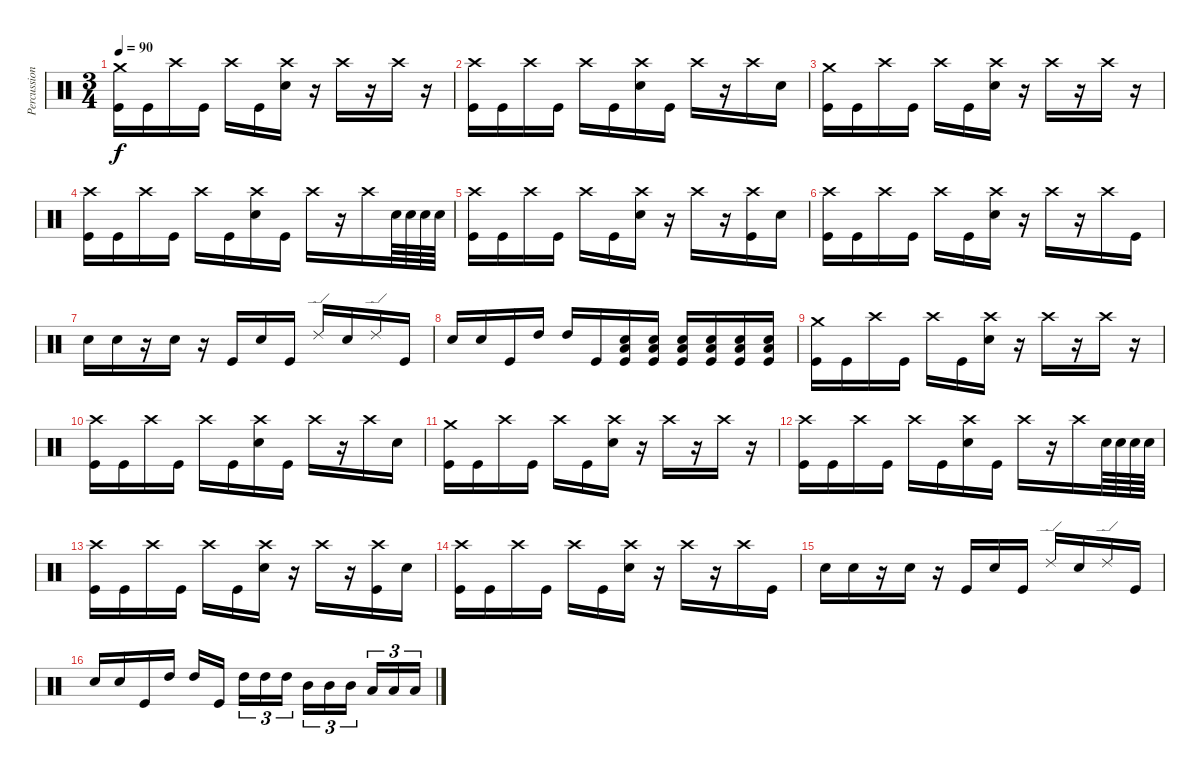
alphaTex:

\track ("Percussion" "Percussion") {instrument percussion}
\staff {score}
\articulation defaults
\ts (3 4)
\tempo 90
\clef neutral
\ks c
("Kick (hit)" "Crash medium (hit)").16{dy f} "Kick (hit)".16 "Crash high (hit)".16 "Kick (hit)".16 "Crash high (hit)".16 "Kick (hit)".16 ("Electric Snare (hit)" "Crash high (hit)").16 r.16 "Crash high (hit)".16 r.16 "Crash high (hit)".16 r.16 |
("Kick (hit)" "Crash high (hit)").16 "Kick (hit)".16 "Crash high (hit)".16 "Kick (hit)".16 "Crash high (hit)".16 "Kick (hit)".16 ("Electric Snare (hit)" "Crash high (hit)").16 "Kick (hit)".16 "Crash high (hit)".16 r.16 "Crash high (hit)".16 "Electric Snare (hit)".16 |
("Kick (hit)" "Crash medium (hit)").16 "Kick (hit)".16 "Crash high (hit)".16 "Kick (hit)".16 "Crash high (hit)".16 "Kick (hit)".16 ("Electric Snare (hit)" "Crash high (hit)").16 r.16 "Crash high (hit)".16 r.16 "Crash high (hit)".16 r.16 |
("Kick (hit)" "Crash high (hit)").16 "Kick (hit)".16 "Crash high (hit)".16 "Kick (hit)".16 "Crash high (hit)".16 "Kick (hit)".16 ("Electric Snare (hit)" "Crash high (hit)").16 "Kick (hit)".16 "Crash high (hit)".16 r.16 "Crash high (hit)".16 "Electric Snare (hit)".64 "Electric Snare (hit)".64 "Electric Snare (hit)".64 "Electric Snare (hit)".64 |
("Kick (hit)" "Crash high (hit)").16 "Kick (hit)".16 "Crash high (hit)".16 "Kick (hit)".16 "Crash high (hit)".16 "Kick (hit)".16 ("Electric Snare (hit)" "Crash high (hit)").16 r.16 "Crash high (hit)".16 r.16 ("Kick (hit)" "Crash high (hit)").16 "Electric Snare (hit)".16 |
("Kick (hit)" "Crash high (hit)").16 "Kick (hit)".16 "Crash high (hit)".16 "Kick (hit)".16 "Crash high (hit)".16 "Kick (hit)".16 ("Electric Snare (hit)" "Crash high (hit)").16 r.16 "Crash high (hit)".16 r.16 "Crash high (hit)".16 "Kick (hit)".16 |
"Electric Snare (hit)".16 "Electric Snare (hit)".16 r.16 "Electric Snare (hit)".16 r.16 "Kick (hit)".16 "Electric Snare (hit)".16 "Kick (hit)".16 "Ride (edge) 2".16 "Electric Snare (hit)".16 "Ride (edge) 2".16 "Kick (hit)".16 |
"Electric Snare (hit)".16 "Electric Snare (hit)".16 "Kick (hit)".16 "High Tom (hit)".16 "High Tom (hit)".16 "Kick (hit)".16 ("Kick (hit)" "Electric Snare (hit)" "Low Floor Tom (hit)").16 ("Kick (hit)" "Electric Snare (hit)" "Low Floor Tom (hit)").16 ("Kick (hit)" "Electric Snare (hit)" "Low Floor Tom (hit)").16 ("Kick (hit)" "Electric Snare (hit)" "Low Floor Tom (hit)").16 ("Kick (hit)" "Electric Snare (hit)" "Low Floor Tom (hit)").16 ("Kick (hit)" "Electric Snare (hit)" "Low Floor Tom (hit)").16 |
("Kick (hit)" "Crash medium (hit)").16 "Kick (hit)".16 "Crash high (hit)".16 "Kick (hit)".16 "Crash high (hit)".16 "Kick (hit)".16 ("Electric Snare (hit)" "Crash high (hit)").16 r.16 "Crash high (hit)".16 r.16 "Crash high (hit)".16 r.16 |
("Kick (hit)" "Crash high (hit)").16 "Kick (hit)".16 "Crash high (hit)".16 "Kick (hit)".16 "Crash high (hit)".16 "Kick (hit)".16 ("Electric Snare (hit)" "Crash high (hit)").16 "Kick (hit)".16 "Crash high (hit)".16 r.16 "Crash high (hit)".16 "Electric Snare (hit)".16 |
("Kick (hit)" "Crash medium (hit)").16 "Kick (hit)".16 "Crash high (hit)".16 "Kick (hit)".16 "Crash high (hit)".16 "Kick (hit)".16 ("Electric Snare (hit)" "Crash high (hit)").16 r.16 "Crash high (hit)".16 r.16 "Crash high (hit)".16 r.16 |
("Kick (hit)" "Crash high (hit)").16 "Kick (hit)".16 "Crash high (hit)".16 "Kick (hit)".16 "Crash high (hit)".16 "Kick (hit)".16 ("Electric Snare (hit)" "Crash high (hit)").16 "Kick (hit)".16 "Crash high (hit)".16 r.16 "Crash high (hit)".16 "Electric Snare (hit)".64 "Electric Snare (hit)".64 "Electric Snare (hit)".64 "Electric Snare (hit)".64 |
("Kick (hit)" "Crash high (hit)").16 "Kick (hit)".16 "Crash high (hit)".16 "Kick (hit)".16 "Crash high (hit)".16 "Kick (hit)".16 ("Electric Snare (hit)" "Crash high (hit)").16 r.16 "Crash high (hit)".16 r.16 ("Kick (hit)" "Crash high (hit)").16 "Electric Snare (hit)".16 |
("Kick (hit)" "Crash high (hit)").16 "Kick (hit)".16 "Crash high (hit)".16 "Kick (hit)".16 "Crash high (hit)".16 "Kick (hit)".16 ("Electric Snare (hit)" "Crash high (hit)").16 r.16 "Crash high (hit)".16 r.16 "Crash high (hit)".16 "Kick (hit)".16 |
"Electric Snare (hit)".16 "Electric Snare (hit)".16 r.16 "Electric Snare (hit)".16 r.16 "Kick (hit)".16 "Electric Snare (hit)".16 "Kick (hit)".16 "Ride (edge) 2".16 "Electric Snare (hit)".16 "Ride (edge) 2".16 "Kick (hit)".16 |
"Electric Snare (hit)".16 "Electric Snare (hit)".16 "Kick (hit)".16 "High Tom (hit)".16 "High Tom (hit)".16 "Kick (hit)".16 "High Tom (hit)".16{tu (3 2)} "High Tom (hit)".16{tu (3 2)} "High Tom (hit)".16{tu (3 2)} "Mid Tom (hit)".16{tu (3 2)} "Mid Tom (hit)".16{tu (3 2)} "Mid Tom (hit)".16{tu (3 2)} "Low Tom (hit)".16{tu (3 2)} "Low Tom (hit)".16{tu (3 2)} "Low Tom (hit)".16{tu (3 2)}
